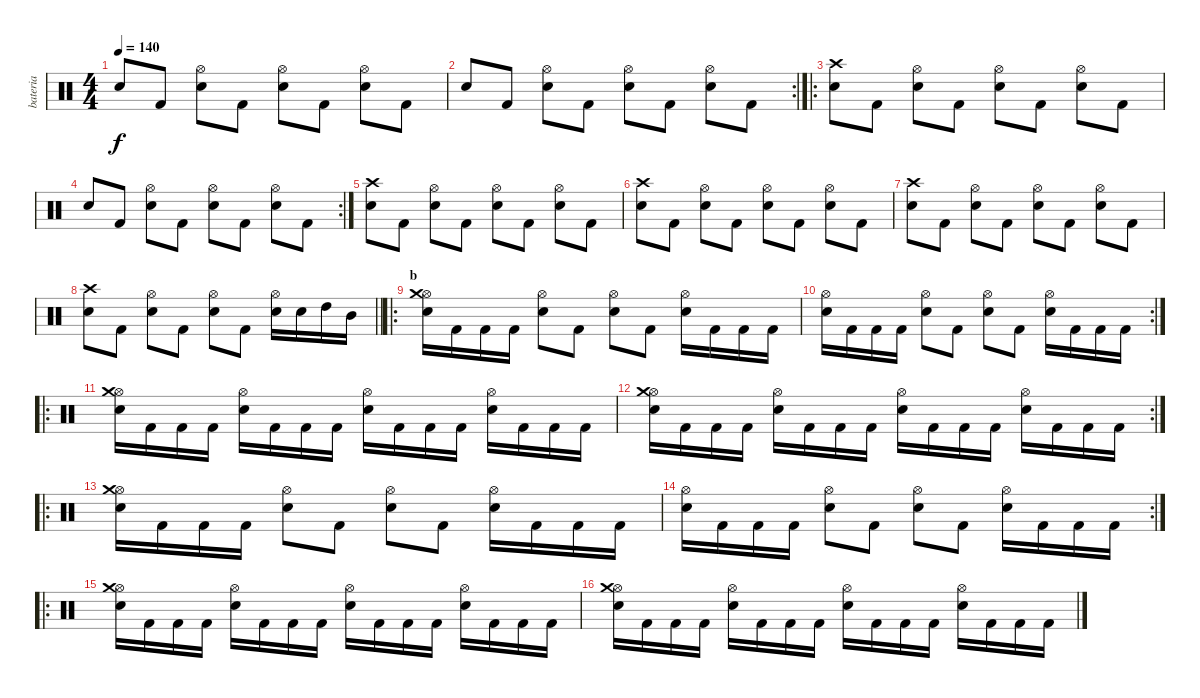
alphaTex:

\track ("bateria" "bateria") {instrument percussion}
\staff {score}
\articulation defaults
\ts (4 4)
\tempo 140
\clef neutral
\ks c "Electric Snare (hit)".8{dy f} "Kick (hit) 2".8
("Electric Snare (hit)" "Hi-Hat (open)").8 "Kick (hit) 2".8 ("Electric Snare (hit)" "Hi-Hat (open)").8 "Kick (hit) 2".8 ("Electric Snare (hit)" "Hi-Hat (open)").8 "Kick (hit) 2".8 |
\rc 2 "Electric Snare (hit)".8 "Kick (hit) 2".8
("Electric Snare (hit)" "Hi-Hat (open)").8 "Kick (hit) 2".8 ("Electric Snare (hit)" "Hi-Hat (open)").8 "Kick (hit) 2".8 ("Electric Snare (hit)" "Hi-Hat (open)").8 "Kick (hit) 2".8 |
\ro
("Electric Snare (hit)" "Crash high (hit)").8 "Kick (hit) 2".8 ("Electric Snare (hit)" "Hi-Hat (open)").8 "Kick (hit) 2".8 ("Electric Snare (hit)" "Hi-Hat (open)").8 "Kick (hit) 2".8 ("Electric Snare (hit)" "Hi-Hat (open)").8 "Kick (hit) 2".8 |
\rc 2 "Electric Snare (hit)".8 "Kick (hit) 2".8
("Electric Snare (hit)" "Hi-Hat (open)").8 "Kick (hit) 2".8 ("Electric Snare (hit)" "Hi-Hat (open)").8 "Kick (hit) 2".8 ("Electric Snare (hit)" "Hi-Hat (open)").8 "Kick (hit) 2".8 |
("Electric Snare (hit)" "Crash high (hit)").8 "Kick (hit) 2".8 ("Electric Snare (hit)" "Hi-Hat (open)").8 "Kick (hit) 2".8 ("Electric Snare (hit)" "Hi-Hat (open)").8 "Kick (hit) 2".8 ("Electric Snare (hit)" "Hi-Hat (open)").8 "Kick (hit) 2".8 |
("Electric Snare (hit)" "Crash high (hit)").8 "Kick (hit) 2".8 ("Electric Snare (hit)" "Hi-Hat (open)").8 "Kick (hit) 2".8 ("Electric Snare (hit)" "Hi-Hat (open)").8 "Kick (hit) 2".8 ("Electric Snare (hit)" "Hi-Hat (open)").8 "Kick (hit) 2".8 |
("Electric Snare (hit)" "Crash high (hit)").8 "Kick (hit) 2".8 ("Electric Snare (hit)" "Hi-Hat (open)").8 "Kick (hit) 2".8 ("Electric Snare (hit)" "Hi-Hat (open)").8 "Kick (hit) 2".8 ("Electric Snare (hit)" "Hi-Hat (open)").8 "Kick (hit) 2".8 |
\barLineRight lightlight
("Electric Snare (hit)" "Crash high (hit)").8 "Kick (hit) 2".8 ("Electric Snare (hit)" "Hi-Hat (open)").8 "Kick (hit) 2".8 ("Electric Snare (hit)" "Hi-Hat (open)").8 "Kick (hit) 2".8 ("Electric Snare (hit)" "Hi-Hat (open)").16 "Electric Snare (hit)".16 "High Tom (hit)".16 "Mid Tom (hit)".16 |
\ro
\section ("" "b")
("Electric Snare (hit)" "Hi-Hat (open)" "Crash medium (hit)").16 "Kick (hit) 2".16 "Kick (hit) 2".16 "Kick (hit) 2".16 ("Electric Snare (hit)" "Hi-Hat (open)").8 "Kick (hit) 2".8 ("Electric Snare (hit)" "Hi-Hat (open)").8 "Kick (hit) 2".8 ("Electric Snare (hit)" "Hi-Hat (open)").16 "Kick (hit) 2".16 "Kick (hit) 2".16 "Kick (hit) 2".16 |
\rc 2
("Electric Snare (hit)" "Hi-Hat (open)").16 "Kick (hit) 2".16 "Kick (hit) 2".16 "Kick (hit) 2".16 ("Electric Snare (hit)" "Hi-Hat (open)").8 "Kick (hit) 2".8 ("Electric Snare (hit)" "Hi-Hat (open)").8 "Kick (hit) 2".8 ("Electric Snare (hit)" "Hi-Hat (open)").16 "Kick (hit) 2".16 "Kick (hit) 2".16 "Kick (hit) 2".16 |
\ro
("Electric Snare (hit)" "Hi-Hat (open)" "Crash medium (hit)").16 "Kick (hit) 2".16 "Kick (hit) 2".16 "Kick (hit) 2".16 ("Electric Snare (hit)" "Hi-Hat (open)").16 "Kick (hit) 2".16 "Kick (hit) 2".16 "Kick (hit) 2".16 ("Electric Snare (hit)" "Hi-Hat (open)").16 "Kick (hit) 2".16 "Kick (hit) 2".16 "Kick (hit) 2".16 ("Electric Snare (hit)" "Hi-Hat (open)").16 "Kick (hit) 2".16 "Kick (hit) 2".16 "Kick (hit) 2".16 |
\rc 2
("Electric Snare (hit)" "Hi-Hat (open)" "Crash medium (hit)").16 "Kick (hit) 2".16 "Kick (hit) 2".16 "Kick (hit) 2".16 ("Electric Snare (hit)" "Hi-Hat (open)").16 "Kick (hit) 2".16 "Kick (hit) 2".16 "Kick (hit) 2".16 ("Electric Snare (hit)" "Hi-Hat (open)").16 "Kick (hit) 2".16 "Kick (hit) 2".16 "Kick (hit) 2".16 ("Electric Snare (hit)" "Hi-Hat (open)").16 "Kick (hit) 2".16 "Kick (hit) 2".16 "Kick (hit) 2".16 |
\ro
("Electric Snare (hit)" "Hi-Hat (open)" "Crash medium (hit)").16 "Kick (hit) 2".16 "Kick (hit) 2".16 "Kick (hit) 2".16 ("Electric Snare (hit)" "Hi-Hat (open)").8 "Kick (hit) 2".8 ("Electric Snare (hit)" "Hi-Hat (open)").8 "Kick (hit) 2".8 ("Electric Snare (hit)" "Hi-Hat (open)").16 "Kick (hit) 2".16 "Kick (hit) 2".16 "Kick (hit) 2".16 |
\rc 2
("Electric Snare (hit)" "Hi-Hat (open)").16 "Kick (hit) 2".16 "Kick (hit) 2".16 "Kick (hit) 2".16 ("Electric Snare (hit)" "Hi-Hat (open)").8 "Kick (hit) 2".8 ("Electric Snare (hit)" "Hi-Hat (open)").8 "Kick (hit) 2".8 ("Electric Snare (hit)" "Hi-Hat (open)").16 "Kick (hit) 2".16 "Kick (hit) 2".16 "Kick (hit) 2".16 |
\ro
("Electric Snare (hit)" "Hi-Hat (open)" "Crash medium (hit)").16 "Kick (hit) 2".16 "Kick (hit) 2".16 "Kick (hit) 2".16 ("Electric Snare (hit)" "Hi-Hat (open)").16 "Kick (hit) 2".16 "Kick (hit) 2".16 "Kick (hit) 2".16 ("Electric Snare (hit)" "Hi-Hat (open)").16 "Kick (hit) 2".16 "Kick (hit) 2".16 "Kick (hit) 2".16 ("Electric Snare (hit)" "Hi-Hat (open)").16 "Kick (hit) 2".16 "Kick (hit) 2".16 "Kick (hit) 2".16 |
("Electric Snare (hit)" "Hi-Hat (open)" "Crash medium (hit)").16 "Kick (hit) 2".16 "Kick (hit) 2".16 "Kick (hit) 2".16 ("Electric Snare (hit)" "Hi-Hat (open)").16 "Kick (hit) 2".16 "Kick (hit) 2".16 "Kick (hit) 2".16 ("Electric Snare (hit)" "Hi-Hat (open)").16 "Kick (hit) 2".16 "Kick (hit) 2".16 "Kick (hit) 2".16 ("Electric Snare (hit)" "Hi-Hat (open)").16 "Kick (hit) 2".16 "Kick (hit) 2".16 "Kick (hit) 2".16
